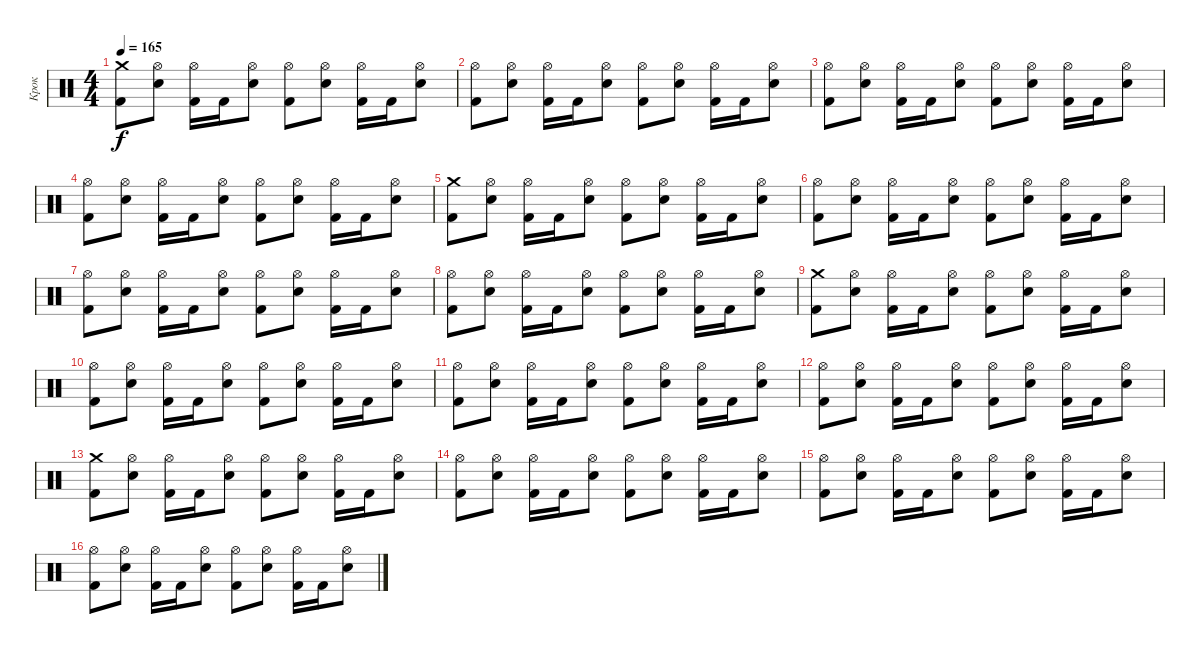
\track ("Крок" "Крок") {instrument percussion}
\staff {score}
\articulation defaults
\ts (4 4)
\tempo 165
\clef neutral
\ks c
("Crash medium (hit)" "Kick (hit) 2").8{dy f} ("Hi-Hat (open)" "Electric Snare (hit)").8 ("Hi-Hat (open)" "Kick (hit) 2").16 "Kick (hit) 2".16 ("Hi-Hat (open)" "Electric Snare (hit)").8 ("Hi-Hat (open)" "Kick (hit) 2").8 ("Hi-Hat (open)" "Electric Snare (hit)").8 ("Hi-Hat (open)" "Kick (hit) 2").16 "Kick (hit) 2".16 ("Hi-Hat (open)" "Electric Snare (hit)").8 |
("Hi-Hat (open)" "Kick (hit) 2").8 ("Hi-Hat (open)" "Electric Snare (hit)").8 ("Hi-Hat (open)" "Kick (hit) 2").16 "Kick (hit) 2".16 ("Hi-Hat (open)" "Electric Snare (hit)").8 ("Hi-Hat (open)" "Kick (hit) 2").8 ("Hi-Hat (open)" "Electric Snare (hit)").8 ("Hi-Hat (open)" "Kick (hit) 2").16 "Kick (hit) 2".16 ("Hi-Hat (open)" "Electric Snare (hit)").8 |
("Hi-Hat (open)" "Kick (hit) 2").8 ("Hi-Hat (open)" "Electric Snare (hit)").8 ("Hi-Hat (open)" "Kick (hit) 2").16 "Kick (hit) 2".16 ("Hi-Hat (open)" "Electric Snare (hit)").8 ("Hi-Hat (open)" "Kick (hit) 2").8 ("Hi-Hat (open)" "Electric Snare (hit)").8 ("Hi-Hat (open)" "Kick (hit) 2").16 "Kick (hit) 2".16 ("Hi-Hat (open)" "Electric Snare (hit)").8 |
("Hi-Hat (open)" "Kick (hit) 2").8 ("Hi-Hat (open)" "Electric Snare (hit)").8 ("Hi-Hat (open)" "Kick (hit) 2").16 "Kick (hit) 2".16 ("Hi-Hat (open)" "Electric Snare (hit)").8 ("Hi-Hat (open)" "Kick (hit) 2").8 ("Hi-Hat (open)" "Electric Snare (hit)").8 ("Hi-Hat (open)" "Kick (hit) 2").16 "Kick (hit) 2".16 ("Hi-Hat (open)" "Electric Snare (hit)").8 |
("Crash medium (hit)" "Kick (hit) 2").8 ("Hi-Hat (open)" "Electric Snare (hit)").8 ("Hi-Hat (open)" "Kick (hit) 2").16 "Kick (hit) 2".16 ("Hi-Hat (open)" "Electric Snare (hit)").8 ("Hi-Hat (open)" "Kick (hit) 2").8 ("Hi-Hat (open)" "Electric Snare (hit)").8 ("Hi-Hat (open)" "Kick (hit) 2").16 "Kick (hit) 2".16 ("Hi-Hat (open)" "Electric Snare (hit)").8 |
("Hi-Hat (open)" "Kick (hit) 2").8 ("Hi-Hat (open)" "Electric Snare (hit)").8 ("Hi-Hat (open)" "Kick (hit) 2").16 "Kick (hit) 2".16 ("Hi-Hat (open)" "Electric Snare (hit)").8 ("Hi-Hat (open)" "Kick (hit) 2").8 ("Hi-Hat (open)" "Electric Snare (hit)").8 ("Hi-Hat (open)" "Kick (hit) 2").16 "Kick (hit) 2".16 ("Hi-Hat (open)" "Electric Snare (hit)").8 |
("Hi-Hat (open)" "Kick (hit) 2").8 ("Hi-Hat (open)" "Electric Snare (hit)").8 ("Hi-Hat (open)" "Kick (hit) 2").16 "Kick (hit) 2".16 ("Hi-Hat (open)" "Electric Snare (hit)").8 ("Hi-Hat (open)" "Kick (hit) 2").8 ("Hi-Hat (open)" "Electric Snare (hit)").8 ("Hi-Hat (open)" "Kick (hit) 2").16 "Kick (hit) 2".16 ("Hi-Hat (open)" "Electric Snare (hit)").8 |
("Hi-Hat (open)" "Kick (hit) 2").8 ("Hi-Hat (open)" "Electric Snare (hit)").8 ("Hi-Hat (open)" "Kick (hit) 2").16 "Kick (hit) 2".16 ("Hi-Hat (open)" "Electric Snare (hit)").8 ("Hi-Hat (open)" "Kick (hit) 2").8 ("Hi-Hat (open)" "Electric Snare (hit)").8 ("Hi-Hat (open)" "Kick (hit) 2").16 "Kick (hit) 2".16 ("Hi-Hat (open)" "Electric Snare (hit)").8 |
("Crash medium (hit)" "Kick (hit) 2").8 ("Hi-Hat (open)" "Electric Snare (hit)").8 ("Hi-Hat (open)" "Kick (hit) 2").16 "Kick (hit) 2".16 ("Hi-Hat (open)" "Electric Snare (hit)").8 ("Hi-Hat (open)" "Kick (hit) 2").8 ("Hi-Hat (open)" "Electric Snare (hit)").8 ("Hi-Hat (open)" "Kick (hit) 2").16 "Kick (hit) 2".16 ("Hi-Hat (open)" "Electric Snare (hit)").8 |
("Hi-Hat (open)" "Kick (hit) 2").8 ("Hi-Hat (open)" "Electric Snare (hit)").8 ("Hi-Hat (open)" "Kick (hit) 2").16 "Kick (hit) 2".16 ("Hi-Hat (open)" "Electric Snare (hit)").8 ("Hi-Hat (open)" "Kick (hit) 2").8 ("Hi-Hat (open)" "Electric Snare (hit)").8 ("Hi-Hat (open)" "Kick (hit) 2").16 "Kick (hit) 2".16 ("Hi-Hat (open)" "Electric Snare (hit)").8 |
("Hi-Hat (open)" "Kick (hit) 2").8 ("Hi-Hat (open)" "Electric Snare (hit)").8 ("Hi-Hat (open)" "Kick (hit) 2").16 "Kick (hit) 2".16 ("Hi-Hat (open)" "Electric Snare (hit)").8 ("Hi-Hat (open)" "Kick (hit) 2").8 ("Hi-Hat (open)" "Electric Snare (hit)").8 ("Hi-Hat (open)" "Kick (hit) 2").16 "Kick (hit) 2".16 ("Hi-Hat (open)" "Electric Snare (hit)").8 |
("Hi-Hat (open)" "Kick (hit) 2").8 ("Hi-Hat (open)" "Electric Snare (hit)").8 ("Hi-Hat (open)" "Kick (hit) 2").16 "Kick (hit) 2".16 ("Hi-Hat (open)" "Electric Snare (hit)").8 ("Hi-Hat (open)" "Kick (hit) 2").8 ("Hi-Hat (open)" "Electric Snare (hit)").8 ("Hi-Hat (open)" "Kick (hit) 2").16 "Kick (hit) 2".16 ("Hi-Hat (open)" "Electric Snare (hit)").8 |
("Crash medium (hit)" "Kick (hit) 2").8 ("Hi-Hat (open)" "Electric Snare (hit)").8 ("Hi-Hat (open)" "Kick (hit) 2").16 "Kick (hit) 2".16 ("Hi-Hat (open)" "Electric Snare (hit)").8 ("Hi-Hat (open)" "Kick (hit) 2").8 ("Hi-Hat (open)" "Electric Snare (hit)").8 ("Hi-Hat (open)" "Kick (hit) 2").16 "Kick (hit) 2".16 ("Hi-Hat (open)" "Electric Snare (hit)").8 |
("Hi-Hat (open)" "Kick (hit) 2").8 ("Hi-Hat (open)" "Electric Snare (hit)").8 ("Hi-Hat (open)" "Kick (hit) 2").16 "Kick (hit) 2".16 ("Hi-Hat (open)" "Electric Snare (hit)").8 ("Hi-Hat (open)" "Kick (hit) 2").8 ("Hi-Hat (open)" "Electric Snare (hit)").8 ("Hi-Hat (open)" "Kick (hit) 2").16 "Kick (hit) 2".16 ("Hi-Hat (open)" "Electric Snare (hit)").8 |
("Hi-Hat (open)" "Kick (hit) 2").8 ("Hi-Hat (open)" "Electric Snare (hit)").8 ("Hi-Hat (open)" "Kick (hit) 2").16 "Kick (hit) 2".16 ("Hi-Hat (open)" "Electric Snare (hit)").8 ("Hi-Hat (open)" "Kick (hit) 2").8 ("Hi-Hat (open)" "Electric Snare (hit)").8 ("Hi-Hat (open)" "Kick (hit) 2").16 "Kick (hit) 2".16 ("Hi-Hat (open)" "Electric Snare (hit)").8 |
("Hi-Hat (open)" "Kick (hit) 2").8 ("Hi-Hat (open)" "Electric Snare (hit)").8 ("Hi-Hat (open)" "Kick (hit) 2").16 "Kick (hit) 2".16 ("Hi-Hat (open)" "Electric Snare (hit)").8 ("Hi-Hat (open)" "Kick (hit) 2").8 ("Hi-Hat (open)" "Electric Snare (hit)").8 ("Hi-Hat (open)" "Kick (hit) 2").16 "Kick (hit) 2".16 ("Hi-Hat (open)" "Electric Snare (hit)").8
